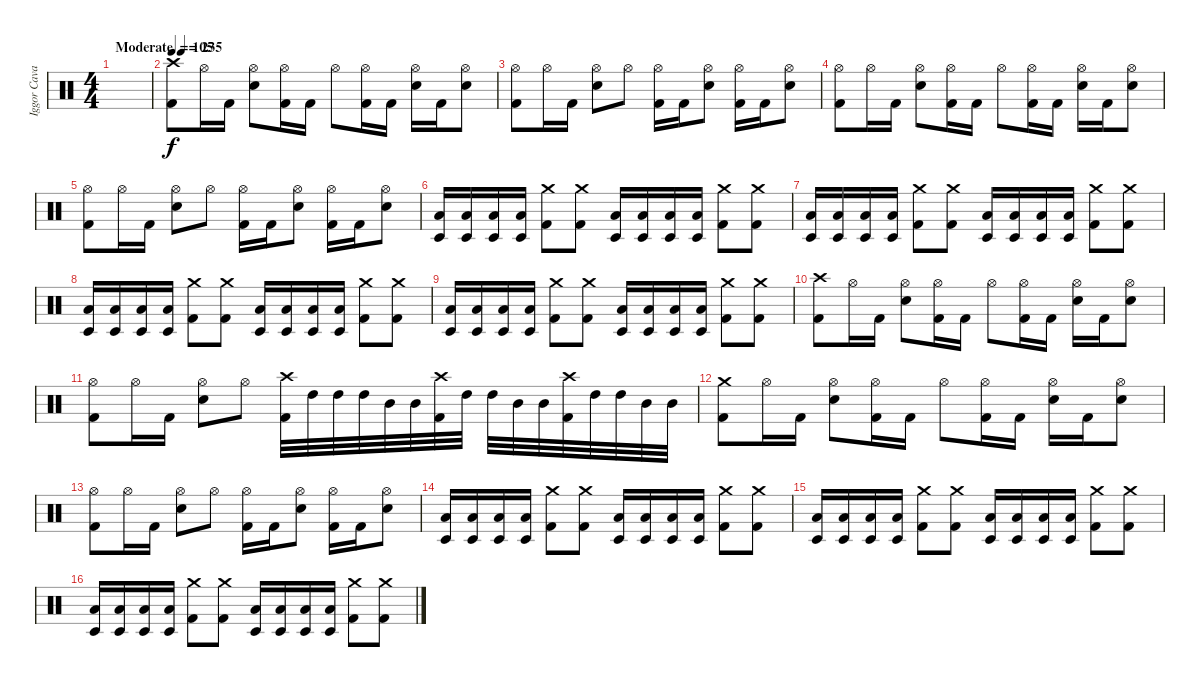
\track ("Iggor Cavalera" "Iggor Cava") {instrument percussion}
\staff {score}
\articulation defaults
\ts (4 4)
\tempo (235 "Moderate")
\clef neutral
\ks c
|
\tempo 105
("Crash high (hit)" "Kick (hit) 2").8 "Hi-Hat (open)".16 "Kick (hit) 2".16 ("Hi-Hat (open)" "Snare (hit) 2").8 ("Hi-Hat (open)" "Kick (hit) 2").16 "Kick (hit) 2".16 "Hi-Hat (open)".8 ("Hi-Hat (open)" "Kick (hit) 2").16 "Kick (hit) 2".16 ("Hi-Hat (open)" "Snare (hit) 2").16 "Kick (hit) 2".16 ("Hi-Hat (open)" "Snare (hit) 2").8 |
("Hi-Hat (open)" "Kick (hit) 2").8 "Hi-Hat (open)".16 "Kick (hit) 2".16 ("Hi-Hat (open)" "Snare (hit) 2").8 "Hi-Hat (open)".8 ("Hi-Hat (open)" "Kick (hit) 2").16 "Kick (hit) 2".16 ("Hi-Hat (open)" "Snare (hit) 2").8 ("Hi-Hat (open)" "Kick (hit) 2").16 "Kick (hit) 2".16 ("Hi-Hat (open)" "Snare (hit) 2").8 |
("Hi-Hat (open)" "Kick (hit) 2").8 "Hi-Hat (open)".16 "Kick (hit) 2".16 ("Hi-Hat (open)" "Snare (hit) 2").8 ("Hi-Hat (open)" "Kick (hit) 2").16 "Kick (hit) 2".16 "Hi-Hat (open)".8 ("Hi-Hat (open)" "Kick (hit) 2").16 "Kick (hit) 2".16 ("Hi-Hat (open)" "Snare (hit) 2").16 "Kick (hit) 2".16 ("Hi-Hat (open)" "Snare (hit) 2").8 |
("Hi-Hat (open)" "Kick (hit) 2").8 "Hi-Hat (open)".16 "Kick (hit) 2".16 ("Hi-Hat (open)" "Snare (hit) 2").8 "Hi-Hat (open)".8 ("Hi-Hat (open)" "Kick (hit) 2").16 "Kick (hit) 2".16 ("Hi-Hat (open)" "Snare (hit) 2").8 ("Hi-Hat (open)" "Kick (hit) 2").16 "Kick (hit) 2".16 ("Hi-Hat (open)" "Snare (hit) 2").8 |
("Timbale low (hit)" "Low Floor Tom (hit)").16 ("Timbale low (hit)" "Low Floor Tom (hit)").16 ("Timbale low (hit)" "Low Floor Tom (hit)").16 ("Timbale low (hit)" "Low Floor Tom (hit)").16 ("Crash medium (hit)" "Kick (hit) 2").8 ("Crash medium (hit)" "Kick (hit) 2").8 ("Timbale low (hit)" "Low Floor Tom (hit)").16 ("Timbale low (hit)" "Low Floor Tom (hit)").16 ("Timbale low (hit)" "Low Floor Tom (hit)").16 ("Timbale low (hit)" "Low Floor Tom (hit)").16 ("Crash medium (hit)" "Kick (hit) 2").8 ("Crash medium (hit)" "Kick (hit) 2").8 |
("Timbale low (hit)" "Low Floor Tom (hit)").16 ("Timbale low (hit)" "Low Floor Tom (hit)").16 ("Timbale low (hit)" "Low Floor Tom (hit)").16 ("Timbale low (hit)" "Low Floor Tom (hit)").16 ("Crash medium (hit)" "Kick (hit) 2").8 ("Crash medium (hit)" "Kick (hit) 2").8 ("Timbale low (hit)" "Low Floor Tom (hit)").16 ("Timbale low (hit)" "Low Floor Tom (hit)").16 ("Timbale low (hit)" "Low Floor Tom (hit)").16 ("Timbale low (hit)" "Low Floor Tom (hit)").16 ("Crash medium (hit)" "Kick (hit) 2").8 ("Crash medium (hit)" "Kick (hit) 2").8 |
("Timbale low (hit)" "Low Floor Tom (hit)").16 ("Timbale low (hit)" "Low Floor Tom (hit)").16 ("Timbale low (hit)" "Low Floor Tom (hit)").16 ("Timbale low (hit)" "Low Floor Tom (hit)").16 ("Crash medium (hit)" "Kick (hit) 2").8 ("Crash medium (hit)" "Kick (hit) 2").8 ("Timbale low (hit)" "Low Floor Tom (hit)").16 ("Timbale low (hit)" "Low Floor Tom (hit)").16 ("Timbale low (hit)" "Low Floor Tom (hit)").16 ("Timbale low (hit)" "Low Floor Tom (hit)").16 ("Crash medium (hit)" "Kick (hit) 2").8 ("Crash medium (hit)" "Kick (hit) 2").8 |
("Timbale low (hit)" "Low Floor Tom (hit)").16 ("Timbale low (hit)" "Low Floor Tom (hit)").16 ("Timbale low (hit)" "Low Floor Tom (hit)").16 ("Timbale low (hit)" "Low Floor Tom (hit)").16 ("Crash medium (hit)" "Kick (hit) 2").8 ("Crash medium (hit)" "Kick (hit) 2").8 ("Timbale low (hit)" "Low Floor Tom (hit)").16 ("Timbale low (hit)" "Low Floor Tom (hit)").16 ("Timbale low (hit)" "Low Floor Tom (hit)").16 ("Timbale low (hit)" "Low Floor Tom (hit)").16 ("Crash medium (hit)" "Kick (hit) 2").8 ("Crash medium (hit)" "Kick (hit) 2").8 |
("Crash high (hit)" "Kick (hit) 2").8 "Hi-Hat (open)".16 "Kick (hit) 2".16 ("Hi-Hat (open)" "Snare (hit) 2").8 ("Hi-Hat (open)" "Kick (hit) 2").16 "Kick (hit) 2".16 "Hi-Hat (open)".8 ("Hi-Hat (open)" "Kick (hit) 2").16 "Kick (hit) 2".16 ("Hi-Hat (open)" "Snare (hit) 2").16 "Kick (hit) 2".16 ("Hi-Hat (open)" "Snare (hit) 2").8 |
("Hi-Hat (open)" "Kick (hit) 2").8 "Hi-Hat (open)".16 "Kick (hit) 2".16 ("Hi-Hat (open)" "Snare (hit) 2").8 "Hi-Hat (open)".8 ("Crash high (hit)" "Kick (hit) 2").32 "High Tom (hit)".32 "High Tom (hit)".32 "High Tom (hit)".32 "Mid Tom (hit)".32 "Mid Tom (hit)".32 ("Crash high (hit)" "Kick (hit) 2").32 "High Tom (hit)".32 "High Tom (hit)".32 "Mid Tom (hit)".32 "Mid Tom (hit)".32 ("Crash high (hit)" "Kick (hit) 2").32 "High Tom (hit)".32 "High Tom (hit)".32 "Mid Tom (hit)".32 "Mid Tom (hit)".32 |
("Crash medium (hit)" "Kick (hit) 2").8 "Hi-Hat (open)".16 "Kick (hit) 2".16 ("Hi-Hat (open)" "Snare (hit) 2").8 ("Hi-Hat (open)" "Kick (hit) 2").16 "Kick (hit) 2".16 "Hi-Hat (open)".8 ("Hi-Hat (open)" "Kick (hit) 2").16 "Kick (hit) 2".16 ("Hi-Hat (open)" "Snare (hit) 2").16 "Kick (hit) 2".16 ("Hi-Hat (open)" "Snare (hit) 2").8 |
("Hi-Hat (open)" "Kick (hit) 2").8 "Hi-Hat (open)".16 "Kick (hit) 2".16 ("Hi-Hat (open)" "Snare (hit) 2").8 "Hi-Hat (open)".8 ("Hi-Hat (open)" "Kick (hit) 2").16 "Kick (hit) 2".16 ("Hi-Hat (open)" "Snare (hit) 2").8 ("Hi-Hat (open)" "Kick (hit) 2").16 "Kick (hit) 2".16 ("Hi-Hat (open)" "Snare (hit) 2").8 |
("Timbale low (hit)" "Low Floor Tom (hit)").16 ("Timbale low (hit)" "Low Floor Tom (hit)").16 ("Timbale low (hit)" "Low Floor Tom (hit)").16 ("Timbale low (hit)" "Low Floor Tom (hit)").16 ("Crash medium (hit)" "Kick (hit) 2").8 ("Crash medium (hit)" "Kick (hit) 2").8 ("Timbale low (hit)" "Low Floor Tom (hit)").16 ("Timbale low (hit)" "Low Floor Tom (hit)").16 ("Timbale low (hit)" "Low Floor Tom (hit)").16 ("Timbale low (hit)" "Low Floor Tom (hit)").16 ("Crash medium (hit)" "Kick (hit) 2").8 ("Crash medium (hit)" "Kick (hit) 2").8 |
("Timbale low (hit)" "Low Floor Tom (hit)").16 ("Timbale low (hit)" "Low Floor Tom (hit)").16 ("Timbale low (hit)" "Low Floor Tom (hit)").16 ("Timbale low (hit)" "Low Floor Tom (hit)").16 ("Crash medium (hit)" "Kick (hit) 2").8 ("Crash medium (hit)" "Kick (hit) 2").8 ("Timbale low (hit)" "Low Floor Tom (hit)").16 ("Timbale low (hit)" "Low Floor Tom (hit)").16 ("Timbale low (hit)" "Low Floor Tom (hit)").16 ("Timbale low (hit)" "Low Floor Tom (hit)").16 ("Crash medium (hit)" "Kick (hit) 2").8 ("Crash medium (hit)" "Kick (hit) 2").8 |
("Timbale low (hit)" "Low Floor Tom (hit)").16 ("Timbale low (hit)" "Low Floor Tom (hit)").16 ("Timbale low (hit)" "Low Floor Tom (hit)").16 ("Timbale low (hit)" "Low Floor Tom (hit)").16 ("Crash medium (hit)" "Kick (hit) 2").8 ("Crash medium (hit)" "Kick (hit) 2").8 ("Timbale low (hit)" "Low Floor Tom (hit)").16 ("Timbale low (hit)" "Low Floor Tom (hit)").16 ("Timbale low (hit)" "Low Floor Tom (hit)").16 ("Timbale low (hit)" "Low Floor Tom (hit)").16 ("Crash medium (hit)" "Kick (hit) 2").8 ("Crash medium (hit)" "Kick (hit) 2").8
